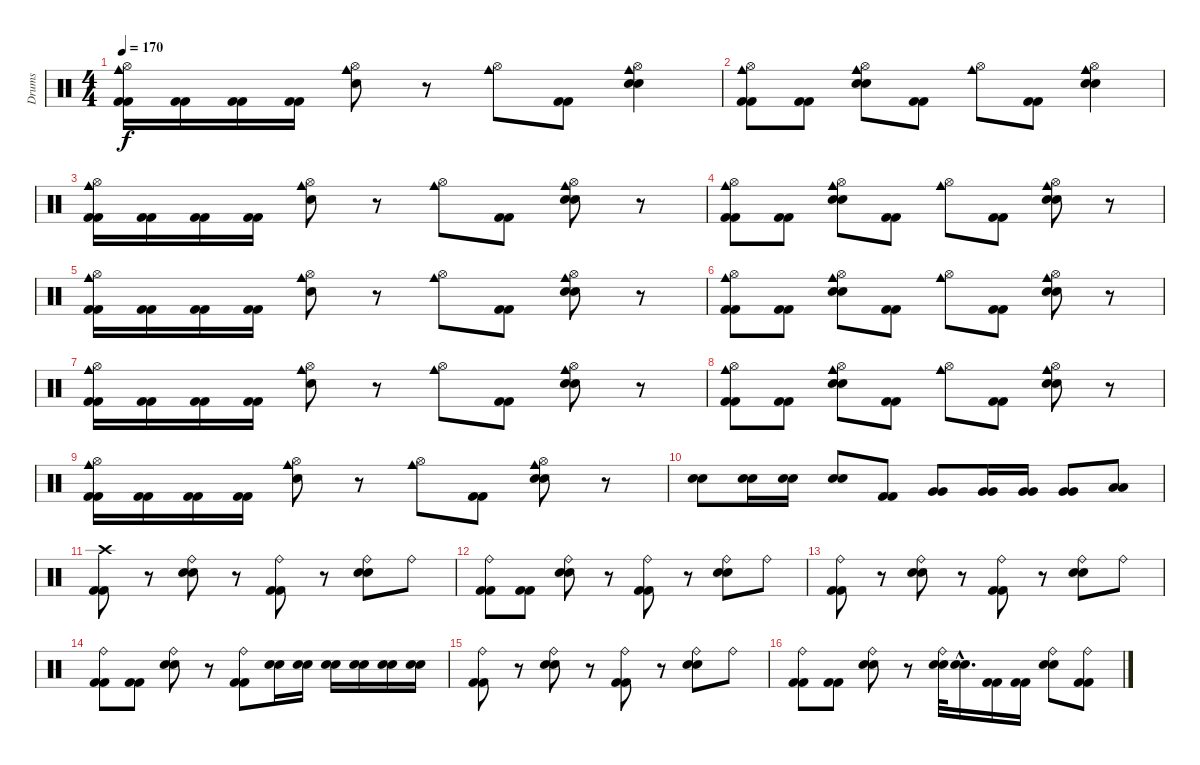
\track ("Drums" "Drums") {instrument percussion}
\staff {score}
\articulation defaults
\ts (4 4)
\tempo 170
\clef neutral
\ks c
("Cowbell medium (hit)" "Hi-Hat (open)" "Kick (hit) 2" "Kick (hit) 2").16{dy f} ("Kick (hit) 2" "Kick (hit) 2").16 ("Kick (hit) 2" "Kick (hit) 2").16 ("Kick (hit) 2" "Kick (hit) 2").16 ("Cowbell medium (hit)" "Hi-Hat (open)" "Electric Snare (hit)").8 r.8 ("Cowbell medium (hit)" "Hi-Hat (open)").8 ("Kick (hit) 2" "Kick (hit) 2").8 ("Cowbell medium (hit)" "Hi-Hat (open)" "Electric Snare (hit)" "Electric Snare (hit)").4 |
("Cowbell medium (hit)" "Hi-Hat (open)" "Kick (hit) 2" "Kick (hit) 2").8 ("Kick (hit) 2" "Kick (hit) 2").8 ("Cowbell medium (hit)" "Hi-Hat (open)" "Electric Snare (hit)" "Electric Snare (hit)").8 ("Kick (hit) 2" "Kick (hit) 2").8 ("Cowbell medium (hit)" "Hi-Hat (open)").8 ("Kick (hit) 2" "Kick (hit) 2").8 ("Cowbell medium (hit)" "Hi-Hat (open)" "Electric Snare (hit)" "Electric Snare (hit)").4 |
("Cowbell medium (hit)" "Hi-Hat (open)" "Kick (hit) 2" "Kick (hit) 2").16 ("Kick (hit) 2" "Kick (hit) 2").16 ("Kick (hit) 2" "Kick (hit) 2").16 ("Kick (hit) 2" "Kick (hit) 2").16 ("Cowbell medium (hit)" "Hi-Hat (open)" "Electric Snare (hit)").8 r.8 ("Cowbell medium (hit)" "Hi-Hat (open)").8 ("Kick (hit) 2" "Kick (hit) 2").8 ("Cowbell medium (hit)" "Hi-Hat (open)" "Electric Snare (hit)" "Electric Snare (hit)").8 r.8 |
("Cowbell medium (hit)" "Hi-Hat (open)" "Kick (hit) 2" "Kick (hit) 2").8 ("Kick (hit) 2" "Kick (hit) 2").8 ("Cowbell medium (hit)" "Hi-Hat (open)" "Electric Snare (hit)" "Electric Snare (hit)").8 ("Kick (hit) 2" "Kick (hit) 2").8 ("Cowbell medium (hit)" "Hi-Hat (open)").8 ("Kick (hit) 2" "Kick (hit) 2").8 ("Cowbell medium (hit)" "Hi-Hat (open)" "Electric Snare (hit)" "Electric Snare (hit)").8 r.8 |
("Cowbell medium (hit)" "Hi-Hat (open)" "Kick (hit) 2" "Kick (hit) 2").16 ("Kick (hit) 2" "Kick (hit) 2").16 ("Kick (hit) 2" "Kick (hit) 2").16 ("Kick (hit) 2" "Kick (hit) 2").16 ("Cowbell medium (hit)" "Hi-Hat (open)" "Electric Snare (hit)").8 r.8 ("Cowbell medium (hit)" "Hi-Hat (open)").8 ("Kick (hit) 2" "Kick (hit) 2").8 ("Cowbell medium (hit)" "Hi-Hat (open)" "Electric Snare (hit)" "Electric Snare (hit)").8 r.8 |
("Cowbell medium (hit)" "Hi-Hat (open)" "Kick (hit) 2" "Kick (hit) 2").8 ("Kick (hit) 2" "Kick (hit) 2").8 ("Cowbell medium (hit)" "Hi-Hat (open)" "Electric Snare (hit)" "Electric Snare (hit)").8 ("Kick (hit) 2" "Kick (hit) 2").8 ("Cowbell medium (hit)" "Hi-Hat (open)").8 ("Kick (hit) 2" "Kick (hit) 2").8 ("Cowbell medium (hit)" "Hi-Hat (open)" "Electric Snare (hit)" "Electric Snare (hit)").8 r.8 |
("Cowbell medium (hit)" "Hi-Hat (open)" "Kick (hit) 2" "Kick (hit) 2").16 ("Kick (hit) 2" "Kick (hit) 2").16 ("Kick (hit) 2" "Kick (hit) 2").16 ("Kick (hit) 2" "Kick (hit) 2").16 ("Cowbell medium (hit)" "Hi-Hat (open)" "Electric Snare (hit)").8 r.8 ("Cowbell medium (hit)" "Hi-Hat (open)").8 ("Kick (hit) 2" "Kick (hit) 2").8 ("Cowbell medium (hit)" "Hi-Hat (open)" "Electric Snare (hit)" "Electric Snare (hit)").8 r.8 |
("Cowbell medium (hit)" "Hi-Hat (open)" "Kick (hit) 2" "Kick (hit) 2").8 ("Kick (hit) 2" "Kick (hit) 2").8 ("Cowbell medium (hit)" "Hi-Hat (open)" "Electric Snare (hit)" "Electric Snare (hit)").8 ("Kick (hit) 2" "Kick (hit) 2").8 ("Cowbell medium (hit)" "Hi-Hat (open)").8 ("Kick (hit) 2" "Kick (hit) 2").8 ("Cowbell medium (hit)" "Hi-Hat (open)" "Electric Snare (hit)" "Electric Snare (hit)").8 r.8 |
("Cowbell medium (hit)" "Hi-Hat (open)" "Kick (hit) 2" "Kick (hit) 2").16 ("Kick (hit) 2" "Kick (hit) 2").16 ("Kick (hit) 2" "Kick (hit) 2").16 ("Kick (hit) 2" "Kick (hit) 2").16 ("Cowbell medium (hit)" "Hi-Hat (open)" "Electric Snare (hit)").8 r.8 ("Cowbell medium (hit)" "Hi-Hat (open)").8 ("Kick (hit) 2" "Kick (hit) 2").8 ("Cowbell medium (hit)" "Hi-Hat (open)" "Electric Snare (hit)" "Electric Snare (hit)").8 r.8 |
("Electric Snare (hit)" "Electric Snare (hit)").8 ("Electric Snare (hit)" "Electric Snare (hit)").16 ("Electric Snare (hit)" "Electric Snare (hit)").16 ("Electric Snare (hit)" "Electric Snare (hit)").8 ("Kick (hit) 2" "Kick (hit) 2").8 ("Very Low Tom (hit)" "Very Low Tom (hit)").8 ("Very Low Tom (hit)" "Very Low Tom (hit)").16 ("Very Low Tom (hit)" "Very Low Tom (hit)").16 ("Very Low Tom (hit)" "Very Low Tom (hit)").8 ("Low Floor Tom (hit)" "Low Floor Tom (hit)").8 |
("Crash high (hit)" "Kick (hit) 2" "Kick (hit) 2").8 r.8 ("Ride (bell)" "Electric Snare (hit)" "Electric Snare (hit)").8 r.8 ("Ride (bell)" "Kick (hit) 2" "Kick (hit) 2").8 r.8 ("Ride (bell)" "Electric Snare (hit)" "Electric Snare (hit)").8 "Ride (bell)".8 |
("Ride (bell)" "Kick (hit) 2" "Kick (hit) 2").8 ("Kick (hit) 2" "Kick (hit) 2").8 ("Ride (bell)" "Electric Snare (hit)" "Electric Snare (hit)").8 r.8 ("Ride (bell)" "Kick (hit) 2" "Kick (hit) 2").8 r.8 ("Ride (bell)" "Electric Snare (hit)" "Electric Snare (hit)").8 "Ride (bell)".8 |
("Ride (bell)" "Kick (hit) 2" "Kick (hit) 2").8 r.8 ("Ride (bell)" "Electric Snare (hit)" "Electric Snare (hit)").8 r.8 ("Ride (bell)" "Kick (hit) 2" "Kick (hit) 2").8 r.8 ("Ride (bell)" "Electric Snare (hit)" "Electric Snare (hit)").8 "Ride (bell)".8 |
("Ride (bell)" "Kick (hit) 2" "Kick (hit) 2").8 ("Kick (hit) 2" "Kick (hit) 2").8 ("Ride (bell)" "Electric Snare (hit)" "Electric Snare (hit)").8 r.8 ("Ride (bell)" "Kick (hit) 2" "Kick (hit) 2").8 ("Electric Snare (hit)" "Electric Snare (hit)").16 ("Electric Snare (hit)" "Electric Snare (hit)").16 ("Electric Snare (hit)" "Electric Snare (hit)").16 ("Electric Snare (hit)" "Electric Snare (hit)").16 ("Electric Snare (hit)" "Electric Snare (hit)").16 ("Electric Snare (hit)" "Electric Snare (hit)").16 |
("Ride (bell)" "Kick (hit) 2" "Kick (hit) 2").8 r.8 ("Ride (bell)" "Electric Snare (hit)" "Electric Snare (hit)").8 r.8 ("Ride (bell)" "Kick (hit) 2" "Kick (hit) 2").8 r.8 ("Ride (bell)" "Electric Snare (hit)" "Electric Snare (hit)").8 "Ride (bell)".8 |
("Ride (bell)" "Kick (hit) 2" "Kick (hit) 2").8 ("Kick (hit) 2" "Kick (hit) 2").8 ("Ride (bell)" "Electric Snare (hit)" "Electric Snare (hit)").8 r.8 ("Ride (bell)" "Electric Snare (hit)" "Electric Snare (hit)").32 ("Electric Snare (hit)"{hac} "Electric Snare (hit)"{hac}).16{d} ("Kick (hit) 2" "Kick (hit) 2").16 ("Kick (hit) 2" "Kick (hit) 2").16 ("Ride (bell)" "Electric Snare (hit)" "Electric Snare (hit)").8 ("Ride (bell)" "Kick (hit) 2" "Kick (hit) 2").8
